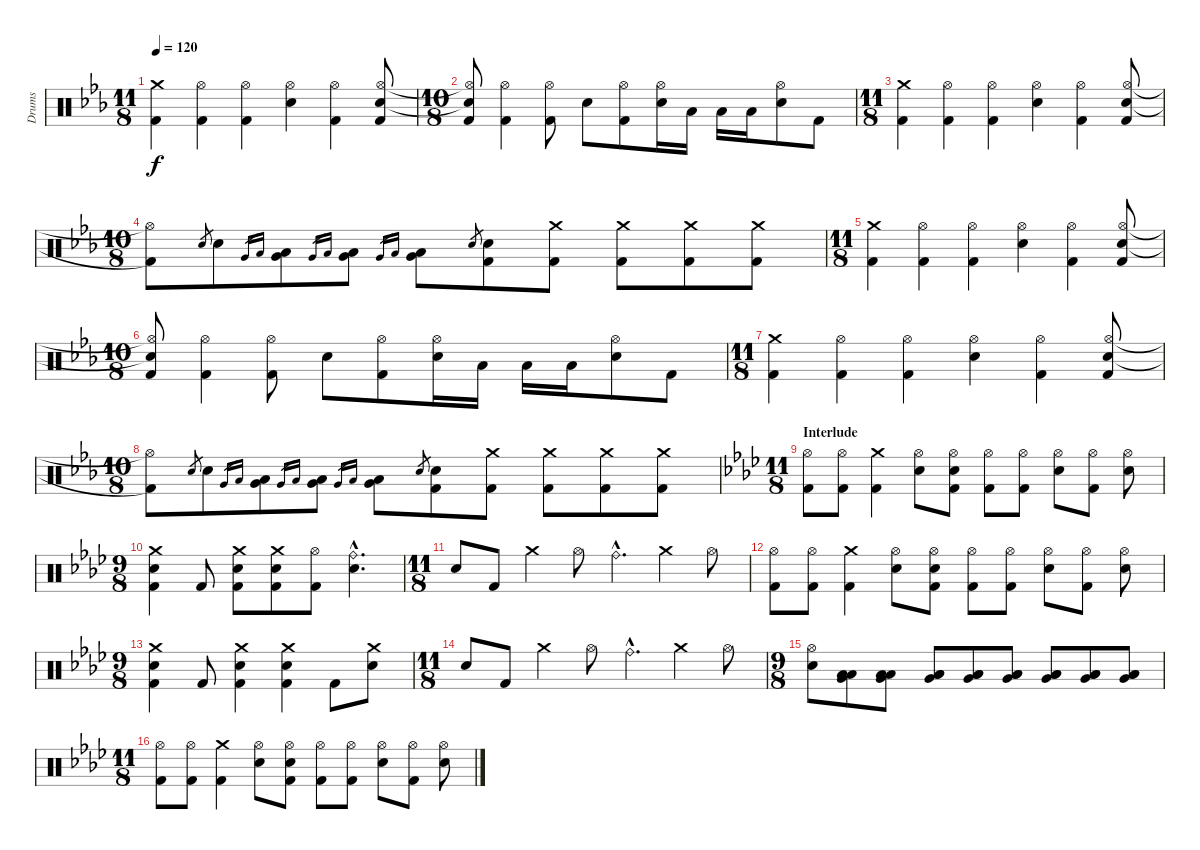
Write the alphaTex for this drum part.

\track ("Drums" "Drums") {instrument percussion}
\staff {score}
\articulation defaults
\ts (11 8)
\tempo 120
\clef neutral
\ks eb
("Crash medium (hit)" "Kick (hit) 2").4{dy f} ("Hi-Hat (open)" "Kick (hit) 2").4 ("Hi-Hat (open)" "Kick (hit) 2").4 ("Hi-Hat (open)" "Electric Snare (hit)").4 ("Hi-Hat (open)" "Kick (hit) 2").4 ("Hi-Hat (open)" "Electric Snare (hit)" "Kick (hit) 2").8 |
\ts (10 8)
("Hi-Hat (open)"{t} "Snare (hit)"{t} "Kick (hit) 2").8 ("Hi-Hat (open)" "Kick (hit) 2").4 ("Hi-Hat (open)" "Kick (hit) 2").8 "Electric Snare (hit)".8 ("Hi-Hat (open)" "Kick (hit) 2").8 ("Hi-Hat (open)" "Electric Snare (hit)").16 "Low Tom (hit)".16 "Low Tom (hit)".16 "Low Tom (hit)".16 ("Hi-Hat (open)" "Electric Snare (hit)").8 "Kick (hit) 2".8 |
\ts (11 8)
("Crash medium (hit)" "Kick (hit) 2").4 ("Hi-Hat (open)" "Kick (hit) 2").4 ("Hi-Hat (open)" "Kick (hit) 2").4 ("Hi-Hat (open)" "Electric Snare (hit)").4 ("Hi-Hat (open)" "Kick (hit) 2").4 ("Hi-Hat (open)" "Electric Snare (hit)" "Kick (hit) 2").8 |
\ts (10 8)
("Hi-Hat (open)"{t} "Kick (hit) 2"{t}).8 "Electric Snare (hit)".8{gr} "Electric Snare (hit)".8 "Very Low Tom (hit)".16{gr} "Low Tom (hit)".16{gr} ("Low Tom (hit)" "Very Low Tom (hit)").8 "Very Low Tom (hit)".16{gr} "Low Tom (hit)".16{gr} ("Low Tom (hit)" "Very Low Tom (hit)").8 "Very Low Tom (hit)".16{gr} "Low Tom (hit)".16{gr} ("Low Tom (hit)" "Very Low Tom (hit)").8 "Electric Snare (hit)".8{gr} ("Electric Snare (hit)" "Kick (hit) 2").8 ("Crash medium (hit)" "Kick (hit) 2").8 ("Crash medium (hit)" "Kick (hit) 2").8 ("Crash medium (hit)" "Kick (hit) 2").8 ("Crash medium (hit)" "Kick (hit) 2").8 |
\ts (11 8)
("Crash medium (hit)" "Kick (hit) 2").4 ("Hi-Hat (open)" "Kick (hit) 2").4 ("Hi-Hat (open)" "Kick (hit) 2").4 ("Hi-Hat (open)" "Electric Snare (hit)").4 ("Hi-Hat (open)" "Kick (hit) 2").4 ("Hi-Hat (open)" "Electric Snare (hit)" "Kick (hit) 2").8 |
\ts (10 8)
("Hi-Hat (open)"{t} "Snare (hit)"{t} "Kick (hit) 2").8 ("Hi-Hat (open)" "Kick (hit) 2").4 ("Hi-Hat (open)" "Kick (hit) 2").8 "Electric Snare (hit)".8 ("Hi-Hat (open)" "Kick (hit) 2").8 ("Hi-Hat (open)" "Electric Snare (hit)").16 "Low Tom (hit)".16 "Low Tom (hit)".16 "Low Tom (hit)".16 ("Hi-Hat (open)" "Electric Snare (hit)").8 "Kick (hit) 2".8 |
\ts (11 8)
("Crash medium (hit)" "Kick (hit) 2").4 ("Hi-Hat (open)" "Kick (hit) 2").4 ("Hi-Hat (open)" "Kick (hit) 2").4 ("Hi-Hat (open)" "Electric Snare (hit)").4 ("Hi-Hat (open)" "Kick (hit) 2").4 ("Hi-Hat (open)" "Electric Snare (hit)" "Kick (hit) 2").8 |
\ts (10 8)
("Hi-Hat (open)"{t} "Kick (hit) 2"{t}).8 "Electric Snare (hit)".8{gr} "Electric Snare (hit)".8 "Very Low Tom (hit)".16{gr} "Low Tom (hit)".16{gr} ("Low Tom (hit)" "Very Low Tom (hit)").8 "Very Low Tom (hit)".16{gr} "Low Tom (hit)".16{gr} ("Low Tom (hit)" "Very Low Tom (hit)").8 "Very Low Tom (hit)".16{gr} "Low Tom (hit)".16{gr} ("Low Tom (hit)" "Very Low Tom (hit)").8 "Electric Snare (hit)".8{gr} ("Electric Snare (hit)" "Kick (hit) 2").8 ("Crash medium (hit)" "Kick (hit) 2").8 ("Crash medium (hit)" "Kick (hit) 2").8 ("Crash medium (hit)" "Kick (hit) 2").8 ("Crash medium (hit)" "Kick (hit) 2").8 |
\ts (11 8)
\section ("" "Interlude")
\ks ab
("Hi-Hat (open)" "Kick (hit) 2").8 ("Hi-Hat (open)" "Kick (hit) 2").8 ("Crash medium (hit)" "Kick (hit) 2").4 ("Hi-Hat (open)" "Electric Snare (hit)").8 ("Hi-Hat (open)" "Electric Snare (hit)" "Kick (hit) 2").8 ("Hi-Hat (open)" "Kick (hit) 2").8 ("Hi-Hat (open)" "Kick (hit) 2").8 ("Hi-Hat (open)" "Electric Snare (hit)").8 ("Hi-Hat (open)" "Kick (hit) 2").8 ("Hi-Hat (open)" "Electric Snare (hit)").8 |
\ts (9 8)
("Crash medium (hit)" "Electric Snare (hit)" "Kick (hit) 2").4 "Kick (hit) 2".8 ("Crash medium (hit)" "Electric Snare (hit)" "Kick (hit) 2").8 ("Crash medium (hit)" "Electric Snare (hit)" "Kick (hit) 2").8 ("Hi-Hat (open)" "Kick (hit) 2").8 ("Ride (bell)"{hac} "Electric Snare (hit)"{hac}).4{d} |
\ts (11 8)
"Electric Snare (hit)".8 "Kick (hit) 2".8 "Crash medium (hit)".4 "Hi-Hat (open)".8 "Ride (bell)"{hac}.4{d} "Crash medium (hit)".4 "Hi-Hat (open)".8 |
("Hi-Hat (open)" "Kick (hit) 2").8 ("Hi-Hat (open)" "Kick (hit) 2").8 ("Crash medium (hit)" "Kick (hit) 2").4 ("Hi-Hat (open)" "Electric Snare (hit)").8 ("Hi-Hat (open)" "Electric Snare (hit)" "Kick (hit) 2").8 ("Hi-Hat (open)" "Kick (hit) 2").8 ("Hi-Hat (open)" "Kick (hit) 2").8 ("Hi-Hat (open)" "Electric Snare (hit)").8 ("Hi-Hat (open)" "Kick (hit) 2").8 ("Hi-Hat (open)" "Electric Snare (hit)").8 |
\ts (9 8)
("Crash medium (hit)" "Electric Snare (hit)" "Kick (hit) 2").4 "Kick (hit) 2".8 ("Crash medium (hit)" "Electric Snare (hit)" "Kick (hit) 2").4 ("Crash medium (hit)" "Electric Snare (hit)" "Kick (hit) 2").4 "Kick (hit) 2".8 ("Crash medium (hit)" "Electric Snare (hit)").8 |
\ts (11 8)
"Electric Snare (hit)".8 "Kick (hit) 2".8 "Crash medium (hit)".4 "Hi-Hat (open)".8 "Ride (bell)"{hac}.4{d} "Crash medium (hit)".4 "Hi-Hat (open)".8 |
\ts (9 8)
("Hi-Hat (open)" "Electric Snare (hit)").8 ("Low Tom (hit)" "Very Low Tom (hit)" "Low Floor Tom (hit)").8 ("Low Tom (hit)" "Very Low Tom (hit)" "Low Floor Tom (hit)").8 ("Low Tom (hit)" "Very Low Tom (hit)" "Low Floor Tom (hit)").8 ("Low Tom (hit)" "Very Low Tom (hit)" "Low Floor Tom (hit)").8 ("Low Tom (hit)" "Very Low Tom (hit)" "Low Floor Tom (hit)").8 ("Low Tom (hit)" "Very Low Tom (hit)" "Low Floor Tom (hit)").8 ("Low Tom (hit)" "Very Low Tom (hit)" "Low Floor Tom (hit)").8 ("Low Tom (hit)" "Very Low Tom (hit)" "Low Floor Tom (hit)").8 |
\ts (11 8)
("Hi-Hat (open)" "Kick (hit) 2").8 ("Hi-Hat (open)" "Kick (hit) 2").8 ("Crash medium (hit)" "Kick (hit) 2").4 ("Hi-Hat (open)" "Electric Snare (hit)").8 ("Hi-Hat (open)" "Electric Snare (hit)" "Kick (hit) 2").8 ("Hi-Hat (open)" "Kick (hit) 2").8 ("Hi-Hat (open)" "Kick (hit) 2").8 ("Hi-Hat (open)" "Electric Snare (hit)").8 ("Hi-Hat (open)" "Kick (hit) 2").8 ("Hi-Hat (open)" "Electric Snare (hit)").8
